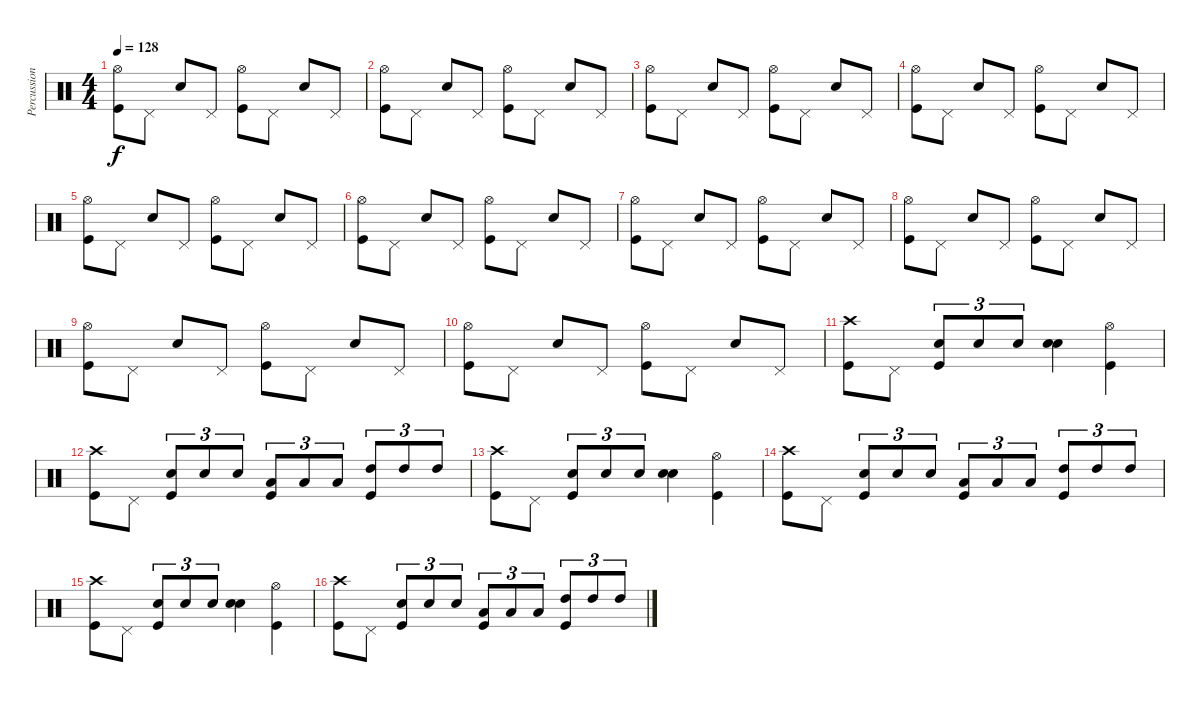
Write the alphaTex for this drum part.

\track ("Percussion" "Percussion") {instrument percussion}
\staff {score}
\articulation defaults
\ts (4 4)
\tempo 128
\clef neutral
\ks c
("Kick (hit)" "Hi-Hat (open)").8{dy f} "Pedal Hi-Hat (hit)".8 "Snare (hit) 2".8 "Pedal Hi-Hat (hit)".8 ("Kick (hit)" "Hi-Hat (open)").8 "Pedal Hi-Hat (hit)".8 "Snare (hit) 2".8 "Pedal Hi-Hat (hit)".8 |
("Kick (hit)" "Hi-Hat (open)").8 "Pedal Hi-Hat (hit)".8 "Snare (hit) 2".8 "Pedal Hi-Hat (hit)".8 ("Kick (hit)" "Hi-Hat (open)").8 "Pedal Hi-Hat (hit)".8 "Snare (hit) 2".8 "Pedal Hi-Hat (hit)".8 |
("Kick (hit)" "Hi-Hat (open)").8 "Pedal Hi-Hat (hit)".8 "Snare (hit) 2".8 "Pedal Hi-Hat (hit)".8 ("Kick (hit)" "Hi-Hat (open)").8 "Pedal Hi-Hat (hit)".8 "Snare (hit) 2".8 "Pedal Hi-Hat (hit)".8 |
("Kick (hit)" "Hi-Hat (open)").8 "Pedal Hi-Hat (hit)".8 "Snare (hit) 2".8 "Pedal Hi-Hat (hit)".8 ("Kick (hit)" "Hi-Hat (open)").8 "Pedal Hi-Hat (hit)".8 "Snare (hit) 2".8 "Pedal Hi-Hat (hit)".8 |
("Kick (hit)" "Hi-Hat (open)").8 "Pedal Hi-Hat (hit)".8 "Snare (hit) 2".8 "Pedal Hi-Hat (hit)".8 ("Kick (hit)" "Hi-Hat (open)").8 "Pedal Hi-Hat (hit)".8 "Snare (hit) 2".8 "Pedal Hi-Hat (hit)".8 |
("Kick (hit)" "Hi-Hat (open)").8 "Pedal Hi-Hat (hit)".8 "Snare (hit) 2".8 "Pedal Hi-Hat (hit)".8 ("Kick (hit)" "Hi-Hat (open)").8 "Pedal Hi-Hat (hit)".8 "Snare (hit) 2".8 "Pedal Hi-Hat (hit)".8 |
("Kick (hit)" "Hi-Hat (open)").8 "Pedal Hi-Hat (hit)".8 "Snare (hit) 2".8 "Pedal Hi-Hat (hit)".8 ("Kick (hit)" "Hi-Hat (open)").8 "Pedal Hi-Hat (hit)".8 "Snare (hit) 2".8 "Pedal Hi-Hat (hit)".8 |
("Kick (hit)" "Hi-Hat (open)").8 "Pedal Hi-Hat (hit)".8 "Snare (hit) 2".8 "Pedal Hi-Hat (hit)".8 ("Kick (hit)" "Hi-Hat (open)").8 "Pedal Hi-Hat (hit)".8 "Snare (hit) 2".8 "Pedal Hi-Hat (hit)".8 |
("Kick (hit)" "Hi-Hat (open)").8 "Pedal Hi-Hat (hit)".8 "Snare (hit) 2".8 "Pedal Hi-Hat (hit)".8 ("Kick (hit)" "Hi-Hat (open)").8 "Pedal Hi-Hat (hit)".8 "Snare (hit) 2".8 "Pedal Hi-Hat (hit)".8 |
("Kick (hit)" "Hi-Hat (open)").8 "Pedal Hi-Hat (hit)".8 "Snare (hit) 2".8 "Pedal Hi-Hat (hit)".8 ("Kick (hit)" "Hi-Hat (open)").8 "Pedal Hi-Hat (hit)".8 "Snare (hit) 2".8 "Pedal Hi-Hat (hit)".8 |
("Kick (hit)" "Crash high (hit)").8 "Pedal Hi-Hat (hit)".8 ("Snare (hit) 2" "Kick (hit)").8{tu (3 2)} "Snare (hit) 2".8{tu (3 2)} "Snare (hit) 2".8{tu (3 2)} ("Snare (hit) 2" "Snare (hit) 2").4 ("Kick (hit)" "Hi-Hat (open)").4 |
("Kick (hit)" "Crash high (hit)").8 "Pedal Hi-Hat (hit)".8 ("Snare (hit) 2" "Kick (hit)").8{tu (3 2)} "Snare (hit) 2".8{tu (3 2)} "Snare (hit) 2".8{tu (3 2)} ("Low Tom (hit)" "Kick (hit)").8{tu (3 2)} "Low Tom (hit)".8{tu (3 2)} "Low Tom (hit)".8{tu (3 2)} ("High Tom (hit)" "Kick (hit)").8{tu (3 2)} "High Tom (hit)".8{tu (3 2)} "High Tom (hit)".8{tu (3 2)} |
("Kick (hit)" "Crash high (hit)").8 "Pedal Hi-Hat (hit)".8 ("Snare (hit) 2" "Kick (hit)").8{tu (3 2)} "Snare (hit) 2".8{tu (3 2)} "Snare (hit) 2".8{tu (3 2)} ("Snare (hit) 2" "Snare (hit) 2").4 ("Kick (hit)" "Hi-Hat (open)").4 |
("Kick (hit)" "Crash high (hit)").8 "Pedal Hi-Hat (hit)".8 ("Snare (hit) 2" "Kick (hit)").8{tu (3 2)} "Snare (hit) 2".8{tu (3 2)} "Snare (hit) 2".8{tu (3 2)} ("Low Tom (hit)" "Kick (hit)").8{tu (3 2)} "Low Tom (hit)".8{tu (3 2)} "Low Tom (hit)".8{tu (3 2)} ("High Tom (hit)" "Kick (hit)").8{tu (3 2)} "High Tom (hit)".8{tu (3 2)} "High Tom (hit)".8{tu (3 2)} |
("Kick (hit)" "Crash high (hit)").8 "Pedal Hi-Hat (hit)".8 ("Snare (hit) 2" "Kick (hit)").8{tu (3 2)} "Snare (hit) 2".8{tu (3 2)} "Snare (hit) 2".8{tu (3 2)} ("Snare (hit) 2" "Snare (hit) 2").4 ("Kick (hit)" "Hi-Hat (open)").4 |
("Kick (hit)" "Crash high (hit)").8 "Pedal Hi-Hat (hit)".8 ("Snare (hit) 2" "Kick (hit)").8{tu (3 2)} "Snare (hit) 2".8{tu (3 2)} "Snare (hit) 2".8{tu (3 2)} ("Low Tom (hit)" "Kick (hit)").8{tu (3 2)} "Low Tom (hit)".8{tu (3 2)} "Low Tom (hit)".8{tu (3 2)} ("High Tom (hit)" "Kick (hit)").8{tu (3 2)} "High Tom (hit)".8{tu (3 2)} "High Tom (hit)".8{tu (3 2)}
